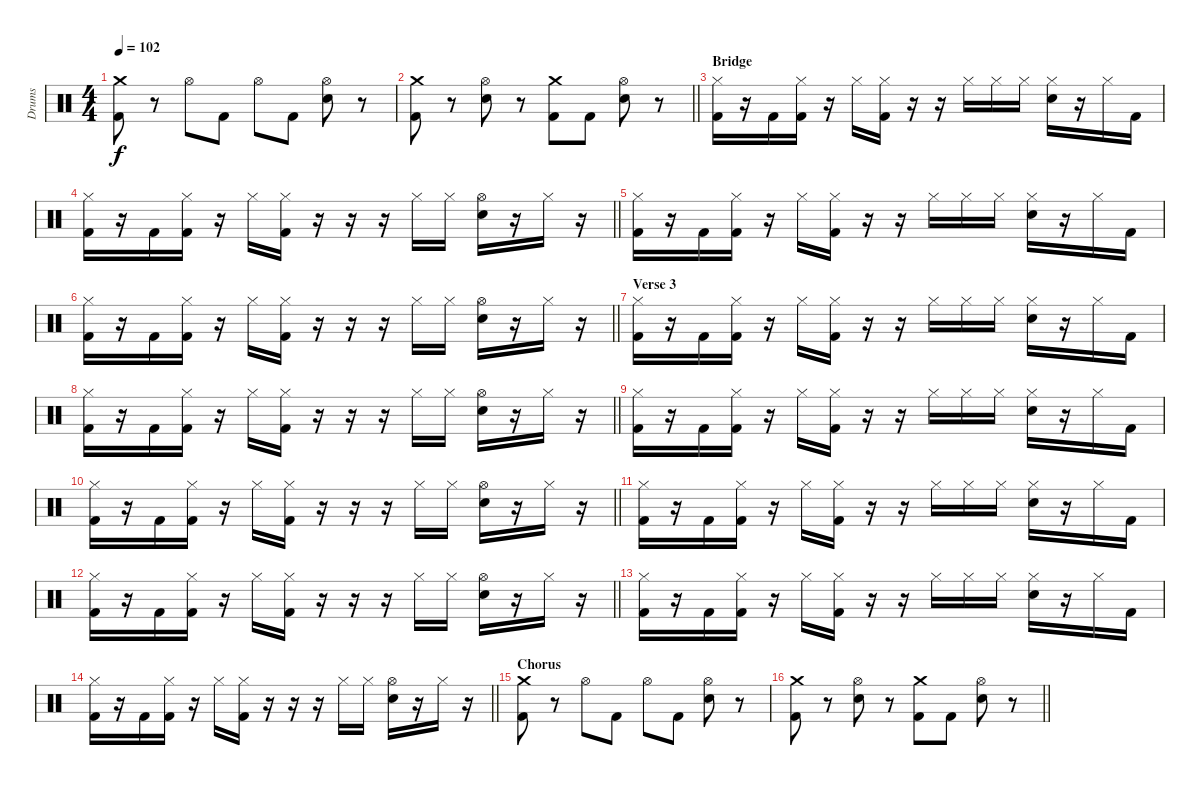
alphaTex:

\track ("Drums" "Drums") {instrument percussion}
\staff {score}
\articulation defaults
\ts (4 4)
\tempo 102
\clef neutral
\ks c
("Crash medium (hit)" "Kick (hit) 2").8{dy f} r.8 "Hi-Hat (open)".8 "Kick (hit) 2".8 "Hi-Hat (open)".8 "Kick (hit) 2".8 ("Hi-Hat (open)" "Electric Snare (hit)").8 r.8 |
\barLineRight lightlight
("Crash medium (hit)" "Kick (hit) 2").8 r.8 ("Hi-Hat (open)" "Electric Snare (hit)").8 r.8 ("Crash medium (hit)" "Kick (hit) 2").8 "Kick (hit) 2".8 ("Hi-Hat (open)" "Electric Snare (hit)").8 r.8 |
\section ("" "Bridge")
("Hi-Hat (closed)" "Kick (hit) 2").16 r.16 "Kick (hit) 2".16 ("Hi-Hat (closed)" "Kick (hit) 2").16 r.16 "Hi-Hat (closed)".16 ("Hi-Hat (closed)" "Kick (hit) 2").16 r.16 r.16 "Hi-Hat (closed)".16 "Hi-Hat (closed)".16 "Hi-Hat (closed)".16 ("Hi-Hat (closed)" "Electric Snare (hit)").16 r.16 "Hi-Hat (closed)".16 "Kick (hit) 2".16 |
\barLineRight lightlight
("Hi-Hat (closed)" "Kick (hit) 2").16 r.16 "Kick (hit) 2".16 ("Hi-Hat (closed)" "Kick (hit) 2").16 r.16 "Hi-Hat (closed)".16 ("Hi-Hat (closed)" "Kick (hit) 2").16 r.16 r.16 r.16 "Hi-Hat (closed)".16 "Hi-Hat (closed)".16 ("Hi-Hat (open)" "Electric Snare (hit)").16 r.16 "Hi-Hat (closed)".16 r.16 |
("Hi-Hat (closed)" "Kick (hit) 2").16 r.16 "Kick (hit) 2".16 ("Hi-Hat (closed)" "Kick (hit) 2").16 r.16 "Hi-Hat (closed)".16 ("Hi-Hat (closed)" "Kick (hit) 2").16 r.16 r.16 "Hi-Hat (closed)".16 "Hi-Hat (closed)".16 "Hi-Hat (closed)".16 ("Hi-Hat (closed)" "Electric Snare (hit)").16 r.16 "Hi-Hat (closed)".16 "Kick (hit) 2".16 |
\barLineRight lightlight
("Hi-Hat (closed)" "Kick (hit) 2").16 r.16 "Kick (hit) 2".16 ("Hi-Hat (closed)" "Kick (hit) 2").16 r.16 "Hi-Hat (closed)".16 ("Hi-Hat (closed)" "Kick (hit) 2").16 r.16 r.16 r.16 "Hi-Hat (closed)".16 "Hi-Hat (closed)".16 ("Hi-Hat (open)" "Electric Snare (hit)").16 r.16 "Hi-Hat (closed)".16 r.16 |
\section ("" "Verse 3")
("Hi-Hat (closed)" "Kick (hit) 2").16 r.16 "Kick (hit) 2".16 ("Hi-Hat (closed)" "Kick (hit) 2").16 r.16 "Hi-Hat (closed)".16 ("Hi-Hat (closed)" "Kick (hit) 2").16 r.16 r.16 "Hi-Hat (closed)".16 "Hi-Hat (closed)".16 "Hi-Hat (closed)".16 ("Hi-Hat (closed)" "Electric Snare (hit)").16 r.16 "Hi-Hat (closed)".16 "Kick (hit) 2".16 |
\barLineRight lightlight
("Hi-Hat (closed)" "Kick (hit) 2").16 r.16 "Kick (hit) 2".16 ("Hi-Hat (closed)" "Kick (hit) 2").16 r.16 "Hi-Hat (closed)".16 ("Hi-Hat (closed)" "Kick (hit) 2").16 r.16 r.16 r.16 "Hi-Hat (closed)".16 "Hi-Hat (closed)".16 ("Hi-Hat (open)" "Electric Snare (hit)").16 r.16 "Hi-Hat (closed)".16 r.16 |
("Hi-Hat (closed)" "Kick (hit) 2").16 r.16 "Kick (hit) 2".16 ("Hi-Hat (closed)" "Kick (hit) 2").16 r.16 "Hi-Hat (closed)".16 ("Hi-Hat (closed)" "Kick (hit) 2").16 r.16 r.16 "Hi-Hat (closed)".16 "Hi-Hat (closed)".16 "Hi-Hat (closed)".16 ("Hi-Hat (closed)" "Electric Snare (hit)").16 r.16 "Hi-Hat (closed)".16 "Kick (hit) 2".16 |
\barLineRight lightlight
("Hi-Hat (closed)" "Kick (hit) 2").16 r.16 "Kick (hit) 2".16 ("Hi-Hat (closed)" "Kick (hit) 2").16 r.16 "Hi-Hat (closed)".16 ("Hi-Hat (closed)" "Kick (hit) 2").16 r.16 r.16 r.16 "Hi-Hat (closed)".16 "Hi-Hat (closed)".16 ("Hi-Hat (open)" "Electric Snare (hit)").16 r.16 "Hi-Hat (closed)".16 r.16 |
("Hi-Hat (closed)" "Kick (hit) 2").16 r.16 "Kick (hit) 2".16 ("Hi-Hat (closed)" "Kick (hit) 2").16 r.16 "Hi-Hat (closed)".16 ("Hi-Hat (closed)" "Kick (hit) 2").16 r.16 r.16 "Hi-Hat (closed)".16 "Hi-Hat (closed)".16 "Hi-Hat (closed)".16 ("Hi-Hat (closed)" "Electric Snare (hit)").16 r.16 "Hi-Hat (closed)".16 "Kick (hit) 2".16 |
\barLineRight lightlight
("Hi-Hat (closed)" "Kick (hit) 2").16 r.16 "Kick (hit) 2".16 ("Hi-Hat (closed)" "Kick (hit) 2").16 r.16 "Hi-Hat (closed)".16 ("Hi-Hat (closed)" "Kick (hit) 2").16 r.16 r.16 r.16 "Hi-Hat (closed)".16 "Hi-Hat (closed)".16 ("Hi-Hat (open)" "Electric Snare (hit)").16 r.16 "Hi-Hat (closed)".16 r.16 |
("Hi-Hat (closed)" "Kick (hit) 2").16 r.16 "Kick (hit) 2".16 ("Hi-Hat (closed)" "Kick (hit) 2").16 r.16 "Hi-Hat (closed)".16 ("Hi-Hat (closed)" "Kick (hit) 2").16 r.16 r.16 "Hi-Hat (closed)".16 "Hi-Hat (closed)".16 "Hi-Hat (closed)".16 ("Hi-Hat (closed)" "Electric Snare (hit)").16 r.16 "Hi-Hat (closed)".16 "Kick (hit) 2".16 |
\barLineRight lightlight
("Hi-Hat (closed)" "Kick (hit) 2").16 r.16 "Kick (hit) 2".16 ("Hi-Hat (closed)" "Kick (hit) 2").16 r.16 "Hi-Hat (closed)".16 ("Hi-Hat (closed)" "Kick (hit) 2").16 r.16 r.16 r.16 "Hi-Hat (closed)".16 "Hi-Hat (closed)".16 ("Hi-Hat (open)" "Electric Snare (hit)").16 r.16 "Hi-Hat (closed)".16 r.16 |
\section ("" "Chorus")
("Crash medium (hit)" "Kick (hit) 2").8 r.8 "Hi-Hat (open)".8 "Kick (hit) 2".8 "Hi-Hat (open)".8 "Kick (hit) 2".8 ("Hi-Hat (open)" "Electric Snare (hit)").8 r.8 |
\barLineRight lightlight
("Crash medium (hit)" "Kick (hit) 2").8 r.8 ("Hi-Hat (open)" "Electric Snare (hit)").8 r.8 ("Crash medium (hit)" "Kick (hit) 2").8 "Kick (hit) 2".8 ("Hi-Hat (open)" "Electric Snare (hit)").8 r.8
